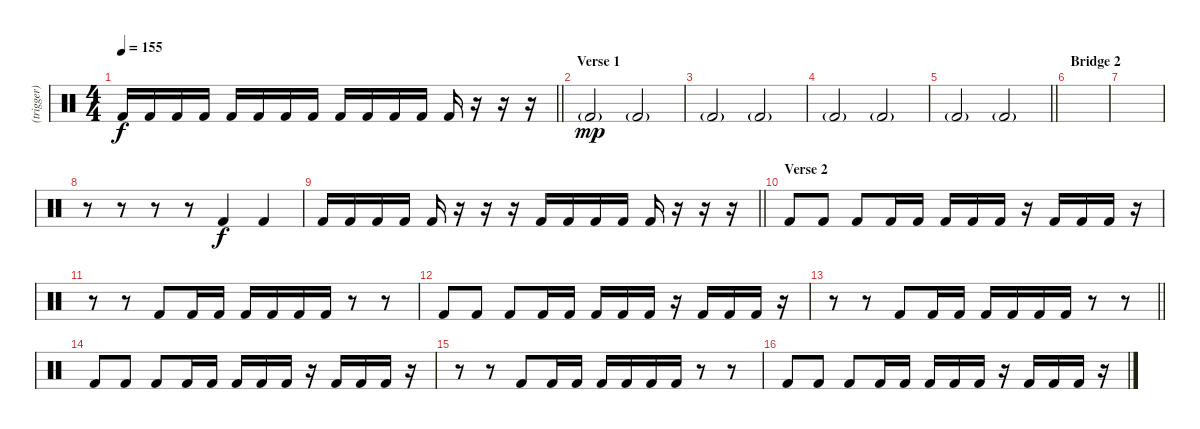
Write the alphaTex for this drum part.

\track ("(trigger)" "(trigger)") {instrument percussion}
\staff {score}
\articulation defaults
\ts (4 4)
\tempo 155
\clef neutral
\barLineRight lightlight
\ks c "Kick (hit) 2".16{dy f} "Kick (hit) 2".16 "Kick (hit) 2".16 "Kick (hit) 2".16 "Kick (hit) 2".16 "Kick (hit) 2".16 "Kick (hit) 2".16 "Kick (hit) 2".16 "Kick (hit) 2".16 "Kick (hit) 2".16 "Kick (hit) 2".16 "Kick (hit) 2".16 "Kick (hit) 2".16
r.16 r.16 r.16 |
\section ("" "Verse 1")
"Kick (hit) 2"{g}.2{dy mp} "Kick (hit) 2"{g}.2 |
"Kick (hit) 2"{g}.2 "Kick (hit) 2"{g}.2 |
"Kick (hit) 2"{g}.2 "Kick (hit) 2"{g}.2 |
\barLineRight lightlight "Kick (hit) 2"{g}.2 "Kick (hit) 2"{g}.2
|
\section ("" "Bridge 2")
|
|
r.8 r.8 r.8 r.8 "Kick (hit) 2".4{dy f} "Kick (hit) 2".4 |
\barLineRight lightlight "Kick (hit) 2".16 "Kick (hit) 2".16 "Kick (hit) 2".16 "Kick (hit) 2".16 "Kick (hit) 2".16
r.16 r.16 r.16 "Kick (hit) 2".16 "Kick (hit) 2".16 "Kick (hit) 2".16 "Kick (hit) 2".16 "Kick (hit) 2".16 r.16 r.16 r.16 |
\section ("" "Verse 2")
"Kick (hit) 2".8 "Kick (hit) 2".8 "Kick (hit) 2".8 "Kick (hit) 2".16 "Kick (hit) 2".16 "Kick (hit) 2".16 "Kick (hit) 2".16 "Kick (hit) 2".16 r.16 "Kick (hit) 2".16 "Kick (hit) 2".16 "Kick (hit) 2".16 r.16 |
r.8 r.8 "Kick (hit) 2".8 "Kick (hit) 2".16 "Kick (hit) 2".16 "Kick (hit) 2".16 "Kick (hit) 2".16 "Kick (hit) 2".16 "Kick (hit) 2".16 r.8 r.8 |
"Kick (hit) 2".8 "Kick (hit) 2".8 "Kick (hit) 2".8 "Kick (hit) 2".16 "Kick (hit) 2".16 "Kick (hit) 2".16 "Kick (hit) 2".16 "Kick (hit) 2".16 r.16 "Kick (hit) 2".16 "Kick (hit) 2".16 "Kick (hit) 2".16 r.16 |
\barLineRight lightlight
r.8 r.8 "Kick (hit) 2".8 "Kick (hit) 2".16 "Kick (hit) 2".16 "Kick (hit) 2".16 "Kick (hit) 2".16 "Kick (hit) 2".16 "Kick (hit) 2".16 r.8 r.8 |
"Kick (hit) 2".8 "Kick (hit) 2".8 "Kick (hit) 2".8 "Kick (hit) 2".16 "Kick (hit) 2".16 "Kick (hit) 2".16 "Kick (hit) 2".16 "Kick (hit) 2".16 r.16 "Kick (hit) 2".16 "Kick (hit) 2".16 "Kick (hit) 2".16 r.16 |
r.8 r.8 "Kick (hit) 2".8 "Kick (hit) 2".16 "Kick (hit) 2".16 "Kick (hit) 2".16 "Kick (hit) 2".16 "Kick (hit) 2".16 "Kick (hit) 2".16 r.8 r.8 |
"Kick (hit) 2".8 "Kick (hit) 2".8 "Kick (hit) 2".8 "Kick (hit) 2".16 "Kick (hit) 2".16 "Kick (hit) 2".16 "Kick (hit) 2".16 "Kick (hit) 2".16 r.16 "Kick (hit) 2".16 "Kick (hit) 2".16 "Kick (hit) 2".16 r.16
